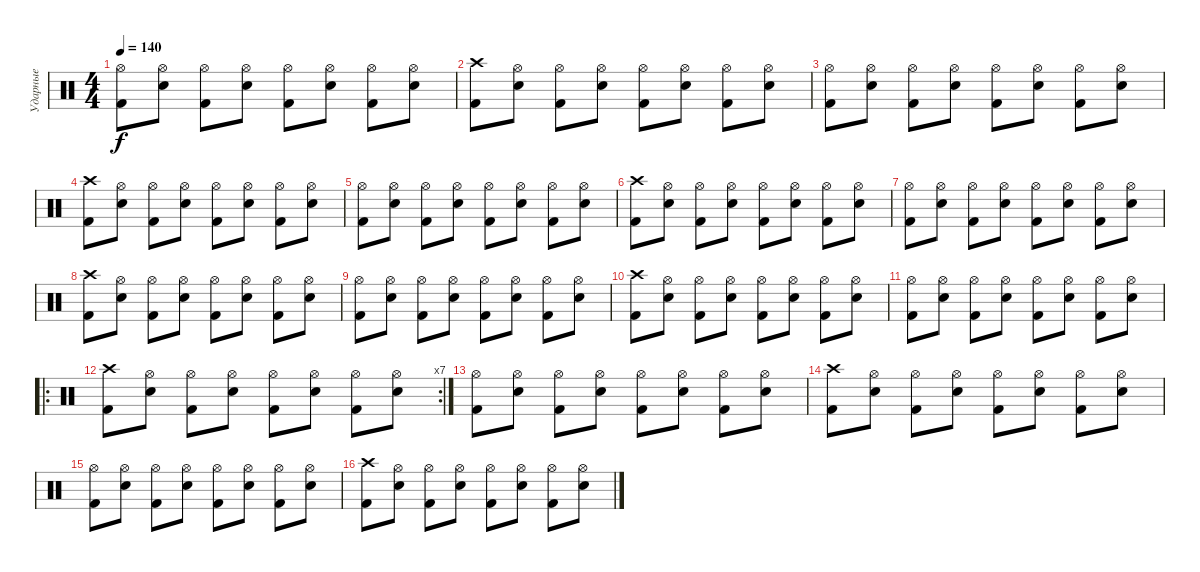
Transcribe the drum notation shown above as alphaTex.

\track ("Ударные" "Ударные") {instrument percussion}
\staff {score}
\articulation defaults
\ts (4 4)
\tempo 140
\clef neutral
\ks c
("Kick (hit) 2" "Hi-Hat (open)").8{dy f} ("Electric Snare (hit)" "Hi-Hat (open)").8 ("Kick (hit) 2" "Hi-Hat (open)").8 ("Electric Snare (hit)" "Hi-Hat (open)").8 ("Kick (hit) 2" "Hi-Hat (open)").8 ("Electric Snare (hit)" "Hi-Hat (open)").8 ("Kick (hit) 2" "Hi-Hat (open)").8 ("Electric Snare (hit)" "Hi-Hat (open)").8 |
("Kick (hit) 2" "Crash high (hit)").8 ("Electric Snare (hit)" "Hi-Hat (open)").8 ("Kick (hit) 2" "Hi-Hat (open)").8 ("Electric Snare (hit)" "Hi-Hat (open)").8 ("Kick (hit) 2" "Hi-Hat (open)").8 ("Electric Snare (hit)" "Hi-Hat (open)").8 ("Kick (hit) 2" "Hi-Hat (open)").8 ("Electric Snare (hit)" "Hi-Hat (open)").8 |
("Kick (hit) 2" "Hi-Hat (open)").8 ("Electric Snare (hit)" "Hi-Hat (open)").8 ("Kick (hit) 2" "Hi-Hat (open)").8 ("Electric Snare (hit)" "Hi-Hat (open)").8 ("Kick (hit) 2" "Hi-Hat (open)").8 ("Electric Snare (hit)" "Hi-Hat (open)").8 ("Kick (hit) 2" "Hi-Hat (open)").8 ("Electric Snare (hit)" "Hi-Hat (open)").8 |
("Kick (hit) 2" "Crash high (hit)").8 ("Electric Snare (hit)" "Hi-Hat (open)").8 ("Kick (hit) 2" "Hi-Hat (open)").8 ("Electric Snare (hit)" "Hi-Hat (open)").8 ("Kick (hit) 2" "Hi-Hat (open)").8 ("Electric Snare (hit)" "Hi-Hat (open)").8 ("Kick (hit) 2" "Hi-Hat (open)").8 ("Electric Snare (hit)" "Hi-Hat (open)").8 |
("Kick (hit) 2" "Hi-Hat (open)").8 ("Electric Snare (hit)" "Hi-Hat (open)").8 ("Kick (hit) 2" "Hi-Hat (open)").8 ("Electric Snare (hit)" "Hi-Hat (open)").8 ("Kick (hit) 2" "Hi-Hat (open)").8 ("Electric Snare (hit)" "Hi-Hat (open)").8 ("Kick (hit) 2" "Hi-Hat (open)").8 ("Electric Snare (hit)" "Hi-Hat (open)").8 |
("Kick (hit) 2" "Crash high (hit)").8 ("Electric Snare (hit)" "Hi-Hat (open)").8 ("Kick (hit) 2" "Hi-Hat (open)").8 ("Electric Snare (hit)" "Hi-Hat (open)").8 ("Kick (hit) 2" "Hi-Hat (open)").8 ("Electric Snare (hit)" "Hi-Hat (open)").8 ("Kick (hit) 2" "Hi-Hat (open)").8 ("Electric Snare (hit)" "Hi-Hat (open)").8 |
("Kick (hit) 2" "Hi-Hat (open)").8 ("Electric Snare (hit)" "Hi-Hat (open)").8 ("Kick (hit) 2" "Hi-Hat (open)").8 ("Electric Snare (hit)" "Hi-Hat (open)").8 ("Kick (hit) 2" "Hi-Hat (open)").8 ("Electric Snare (hit)" "Hi-Hat (open)").8 ("Kick (hit) 2" "Hi-Hat (open)").8 ("Electric Snare (hit)" "Hi-Hat (open)").8 |
("Kick (hit) 2" "Crash high (hit)").8 ("Electric Snare (hit)" "Hi-Hat (open)").8 ("Kick (hit) 2" "Hi-Hat (open)").8 ("Electric Snare (hit)" "Hi-Hat (open)").8 ("Kick (hit) 2" "Hi-Hat (open)").8 ("Electric Snare (hit)" "Hi-Hat (open)").8 ("Kick (hit) 2" "Hi-Hat (open)").8 ("Electric Snare (hit)" "Hi-Hat (open)").8 |
("Kick (hit) 2" "Hi-Hat (open)").8 ("Electric Snare (hit)" "Hi-Hat (open)").8 ("Kick (hit) 2" "Hi-Hat (open)").8 ("Electric Snare (hit)" "Hi-Hat (open)").8 ("Kick (hit) 2" "Hi-Hat (open)").8 ("Electric Snare (hit)" "Hi-Hat (open)").8 ("Kick (hit) 2" "Hi-Hat (open)").8 ("Electric Snare (hit)" "Hi-Hat (open)").8 |
("Kick (hit) 2" "Crash high (hit)").8 ("Electric Snare (hit)" "Hi-Hat (open)").8 ("Kick (hit) 2" "Hi-Hat (open)").8 ("Electric Snare (hit)" "Hi-Hat (open)").8 ("Kick (hit) 2" "Hi-Hat (open)").8 ("Electric Snare (hit)" "Hi-Hat (open)").8 ("Kick (hit) 2" "Hi-Hat (open)").8 ("Electric Snare (hit)" "Hi-Hat (open)").8 |
("Kick (hit) 2" "Hi-Hat (open)").8 ("Electric Snare (hit)" "Hi-Hat (open)").8 ("Kick (hit) 2" "Hi-Hat (open)").8 ("Electric Snare (hit)" "Hi-Hat (open)").8 ("Kick (hit) 2" "Hi-Hat (open)").8 ("Electric Snare (hit)" "Hi-Hat (open)").8 ("Kick (hit) 2" "Hi-Hat (open)").8 ("Electric Snare (hit)" "Hi-Hat (open)").8 |
\ro
\rc 7
("Kick (hit) 2" "Crash high (hit)").8 ("Electric Snare (hit)" "Hi-Hat (open)").8 ("Kick (hit) 2" "Hi-Hat (open)").8 ("Electric Snare (hit)" "Hi-Hat (open)").8 ("Kick (hit) 2" "Hi-Hat (open)").8 ("Electric Snare (hit)" "Hi-Hat (open)").8 ("Kick (hit) 2" "Hi-Hat (open)").8 ("Electric Snare (hit)" "Hi-Hat (open)").8 |
("Kick (hit) 2" "Hi-Hat (open)").8 ("Electric Snare (hit)" "Hi-Hat (open)").8 ("Kick (hit) 2" "Hi-Hat (open)").8 ("Electric Snare (hit)" "Hi-Hat (open)").8 ("Kick (hit) 2" "Hi-Hat (open)").8 ("Electric Snare (hit)" "Hi-Hat (open)").8 ("Kick (hit) 2" "Hi-Hat (open)").8 ("Electric Snare (hit)" "Hi-Hat (open)").8 |
("Kick (hit) 2" "Crash high (hit)").8 ("Electric Snare (hit)" "Hi-Hat (open)").8 ("Kick (hit) 2" "Hi-Hat (open)").8 ("Electric Snare (hit)" "Hi-Hat (open)").8 ("Kick (hit) 2" "Hi-Hat (open)").8 ("Electric Snare (hit)" "Hi-Hat (open)").8 ("Kick (hit) 2" "Hi-Hat (open)").8 ("Electric Snare (hit)" "Hi-Hat (open)").8 |
("Kick (hit) 2" "Hi-Hat (open)").8 ("Electric Snare (hit)" "Hi-Hat (open)").8 ("Kick (hit) 2" "Hi-Hat (open)").8 ("Electric Snare (hit)" "Hi-Hat (open)").8 ("Kick (hit) 2" "Hi-Hat (open)").8 ("Electric Snare (hit)" "Hi-Hat (open)").8 ("Kick (hit) 2" "Hi-Hat (open)").8 ("Electric Snare (hit)" "Hi-Hat (open)").8 |
("Kick (hit) 2" "Crash high (hit)").8 ("Electric Snare (hit)" "Hi-Hat (open)").8 ("Kick (hit) 2" "Hi-Hat (open)").8 ("Electric Snare (hit)" "Hi-Hat (open)").8 ("Kick (hit) 2" "Hi-Hat (open)").8 ("Electric Snare (hit)" "Hi-Hat (open)").8 ("Kick (hit) 2" "Hi-Hat (open)").8 ("Electric Snare (hit)" "Hi-Hat (open)").8
